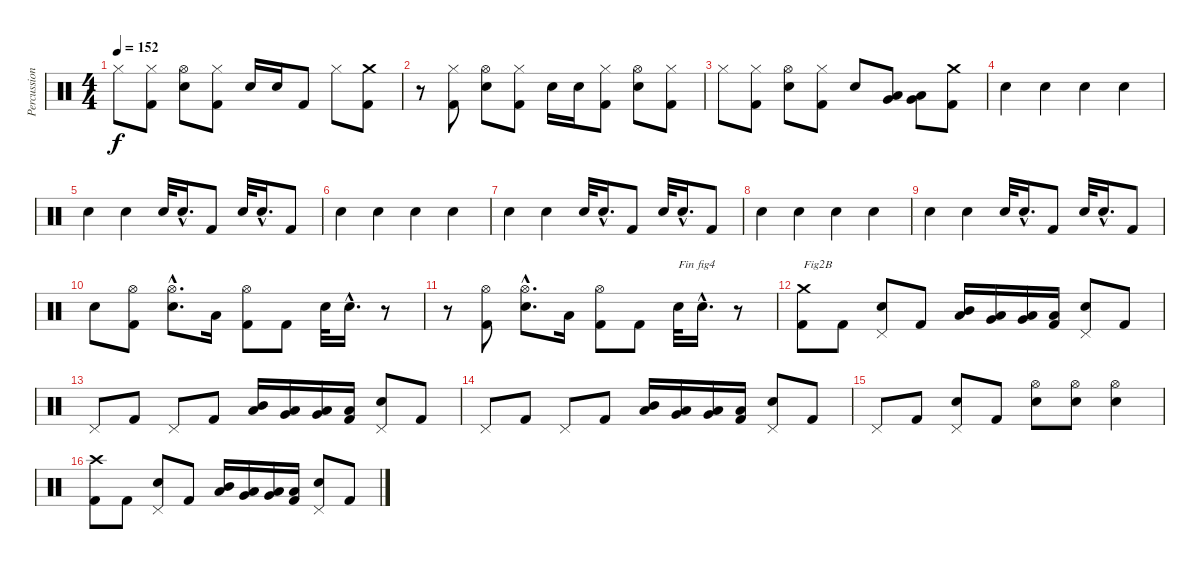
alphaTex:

\track ("Percussions" "Percussion") {instrument percussion}
\staff {score}
\articulation defaults
\ts (4 4)
\tempo 152
\clef neutral
\ks c "Hi-Hat (closed)".8{dy f}
("Kick (hit) 2" "Hi-Hat (closed)").8 ("Electric Snare (hit)" "Hi-Hat (open)").8 ("Kick (hit) 2" "Hi-Hat (closed)").8 "Electric Snare (hit)".16 "Electric Snare (hit)".16 "Kick (hit) 2".8 "Hi-Hat (closed)".8 ("Kick (hit) 2" "Crash medium (hit)").8 |
r.8 ("Kick (hit) 2" "Hi-Hat (closed)").8 ("Electric Snare (hit)" "Hi-Hat (open)").8 ("Kick (hit) 2" "Hi-Hat (closed)").8 "Electric Snare (hit)".16 "Electric Snare (hit)".16 ("Kick (hit) 2" "Hi-Hat (closed)").8 ("Electric Snare (hit)" "Hi-Hat (open)").8 ("Kick (hit) 2" "Hi-Hat (closed)").8 |
"Hi-Hat (closed)".8 ("Kick (hit) 2" "Hi-Hat (closed)").8 ("Electric Snare (hit)" "Hi-Hat (open)").8 ("Kick (hit) 2" "Hi-Hat (closed)").8 "Electric Snare (hit)".8 ("Very Low Tom (hit)" "Low Floor Tom (hit)").8 ("Very Low Tom (hit)" "Low Floor Tom (hit)").8 ("Kick (hit) 2" "Crash medium (hit)").8 |
"Electric Snare (hit)".4 "Electric Snare (hit)".4 "Electric Snare (hit)".4 "Electric Snare (hit)".4 |
"Electric Snare (hit)".4 "Electric Snare (hit)".4 "Electric Snare (hit)".32 "Electric Snare (hit)"{hac}.16{d} "Kick (hit) 2".8 "Electric Snare (hit)".32 "Electric Snare (hit)"{hac}.16{d} "Kick (hit) 2".8 |
"Electric Snare (hit)".4 "Electric Snare (hit)".4 "Electric Snare (hit)".4 "Electric Snare (hit)".4 |
"Electric Snare (hit)".4 "Electric Snare (hit)".4 "Electric Snare (hit)".32 "Electric Snare (hit)"{hac}.16{d} "Kick (hit) 2".8 "Electric Snare (hit)".32 "Electric Snare (hit)"{hac}.16{d} "Kick (hit) 2".8 |
"Electric Snare (hit)".4 "Electric Snare (hit)".4 "Electric Snare (hit)".4 "Electric Snare (hit)".4 |
"Electric Snare (hit)".4 "Electric Snare (hit)".4 "Electric Snare (hit)".32 "Electric Snare (hit)"{hac}.16{d} "Kick (hit) 2".8 "Electric Snare (hit)".32 "Electric Snare (hit)"{hac}.16{d} "Kick (hit) 2".8 |
"Electric Snare (hit)".8 ("Kick (hit) 2" "Hi-Hat (open)").8 ("Electric Snare (hit)"{hac} "Hi-Hat (open)"{hac}).8{d} "Low Floor Tom (hit)".16 ("Kick (hit) 2" "Hi-Hat (open)").8 "Kick (hit) 2".8 "Electric Snare (hit)".32 "Electric Snare (hit)"{hac}.16{d} r.8 |
r.8 ("Kick (hit) 2" "Hi-Hat (open)").8 ("Electric Snare (hit)"{hac} "Hi-Hat (open)"{hac}).8{d} "Low Floor Tom (hit)".16 ("Kick (hit) 2" "Hi-Hat (open)").8 "Kick (hit) 2".8 "Electric Snare (hit)".32{txt "Fin fig4"} "Electric Snare (hit)"{hac}.16{d} r.8 |
("Kick (hit) 2" "Crash medium (hit)").8{txt "Fig2B"} "Kick (hit) 2".8 ("Electric Snare (hit)" "Pedal Hi-Hat (hit)").8 "Kick (hit) 2".8 ("Low Tom (hit)" "Mid Tom (hit)").16 ("Low Tom (hit)" "Very Low Tom (hit)").16 ("Low Floor Tom (hit)" "Very Low Tom (hit)").16 ("Kick (hit) 2" "Low Floor Tom (hit)").16 ("Electric Snare (hit)" "Pedal Hi-Hat (hit)").8 "Kick (hit) 2".8 |
"Pedal Hi-Hat (hit)".8 "Kick (hit) 2".8 "Pedal Hi-Hat (hit)".8 "Kick (hit) 2".8 ("Low Tom (hit)" "Mid Tom (hit)").16 ("Low Tom (hit)" "Very Low Tom (hit)").16 ("Low Floor Tom (hit)" "Very Low Tom (hit)").16 ("Kick (hit) 2" "Low Floor Tom (hit)").16 ("Electric Snare (hit)" "Pedal Hi-Hat (hit)").8 "Kick (hit) 2".8 |
"Pedal Hi-Hat (hit)".8 "Kick (hit) 2".8 "Pedal Hi-Hat (hit)".8 "Kick (hit) 2".8 ("Low Tom (hit)" "Mid Tom (hit)").16 ("Low Tom (hit)" "Very Low Tom (hit)").16 ("Low Floor Tom (hit)" "Very Low Tom (hit)").16 ("Kick (hit) 2" "Low Floor Tom (hit)").16 ("Electric Snare (hit)" "Pedal Hi-Hat (hit)").8 "Kick (hit) 2".8 |
"Pedal Hi-Hat (hit)".8 "Kick (hit) 2".8 ("Electric Snare (hit)" "Pedal Hi-Hat (hit)").8 "Kick (hit) 2".8 ("Electric Snare (hit)" "Hi-Hat (open)").8 ("Electric Snare (hit)" "Hi-Hat (open)").8 ("Electric Snare (hit)" "Hi-Hat (open)").4 |
("Kick (hit) 2" "Crash high (hit)").8 "Kick (hit) 2".8 ("Electric Snare (hit)" "Pedal Hi-Hat (hit)").8 "Kick (hit) 2".8 ("Low Tom (hit)" "Mid Tom (hit)").16 ("Low Tom (hit)" "Very Low Tom (hit)").16 ("Low Floor Tom (hit)" "Very Low Tom (hit)").16 ("Kick (hit) 2" "Low Floor Tom (hit)").16 ("Electric Snare (hit)" "Pedal Hi-Hat (hit)").8 "Kick (hit) 2".8
